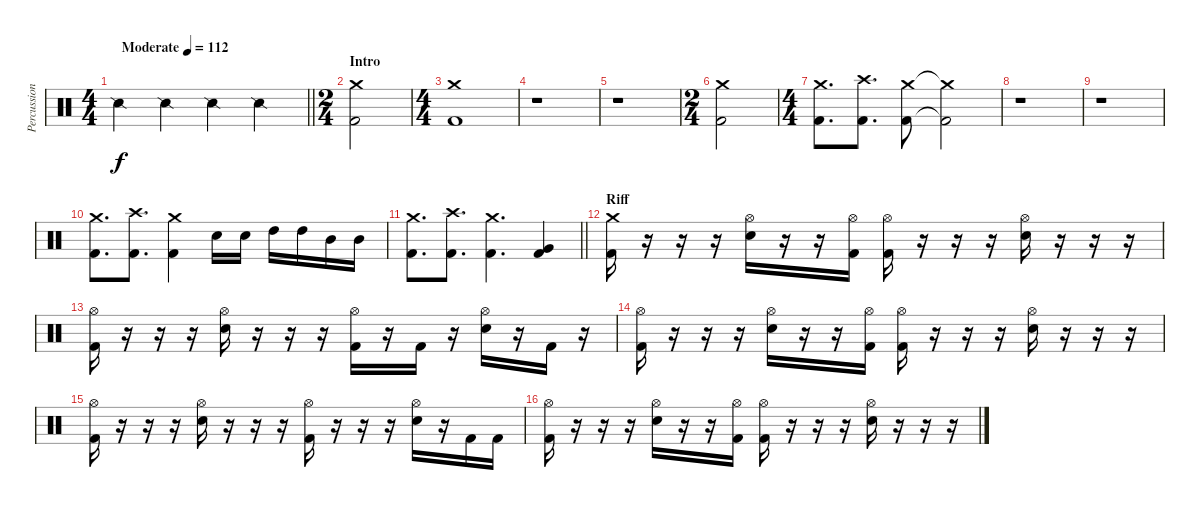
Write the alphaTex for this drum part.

\track ("Percussioni" "Percussion") {instrument percussion}
\staff {score}
\articulation defaults
\ts (4 4)
\tempo (112 "Moderate")
\clef neutral
\barLineRight lightlight
\ks c "Snare (side stick) 2".4{dy f} "Snare (side stick) 2".4 "Snare (side stick) 2".4 "Snare (side stick) 2".4
|
\ts (2 4)
\section ("" "Intro")
("Kick (hit) 2" "Crash medium (hit)").2 |
\ts (4 4)
("Kick (hit) 2" "Crash medium (hit)").1 |
r.1 |
r.1 |
\ts (2 4)
("Kick (hit) 2" "Crash medium (hit)").2 |
\ts (4 4)
("Kick (hit) 2" "Crash medium (hit)").8{d} ("Kick (hit) 2" "Crash high (hit)").8{d} ("Kick (hit) 2" "Crash medium (hit)").8 ("Kick (hit) 2"{t} "Crash medium (hit)"{t}).2 |
r.1 |
r.1 |
("Kick (hit) 2" "Crash medium (hit)").8{d} ("Kick (hit) 2" "Crash high (hit)").8{d} ("Kick (hit) 2" "Crash medium (hit)").4 "Snare (hit) 2".16 "Snare (hit) 2".16 "High Tom (hit)".16 "High Tom (hit)".16 "Mid Tom (hit)".16 "Mid Tom (hit)".16 |
\barLineRight lightlight
("Kick (hit) 2" "Crash medium (hit)").8{d} ("Kick (hit) 2" "Crash high (hit)").8{d} ("Kick (hit) 2" "Crash medium (hit)").4{d} ("Kick (hit) 2" "Very Low Tom (hit)").4 |
\section ("" "Riff")
("Kick (hit) 2" "Crash medium (hit)").16 r.16 r.16 r.16 ("Snare (hit) 2" "Hi-Hat (open)").16 r.16 r.16 ("Kick (hit) 2" "Hi-Hat (open)").16 ("Kick (hit) 2" "Hi-Hat (open)").16 r.16 r.16 r.16 ("Snare (hit) 2" "Hi-Hat (open)").16 r.16 r.16 r.16 |
("Kick (hit) 2" "Hi-Hat (open)").16 r.16 r.16 r.16 ("Snare (hit) 2" "Hi-Hat (open)").16 r.16 r.16 r.16 ("Kick (hit) 2" "Hi-Hat (open)").16 r.16 "Kick (hit) 2".16 r.16 ("Snare (hit) 2" "Hi-Hat (open)").16 r.16 "Kick (hit) 2".16 r.16 |
("Kick (hit) 2" "Hi-Hat (open)").16 r.16 r.16 r.16 ("Snare (hit) 2" "Hi-Hat (open)").16 r.16 r.16 ("Kick (hit) 2" "Hi-Hat (open)").16 ("Kick (hit) 2" "Hi-Hat (open)").16 r.16 r.16 r.16 ("Snare (hit) 2" "Hi-Hat (open)").16 r.16 r.16 r.16 |
("Kick (hit) 2" "Hi-Hat (open)").16 r.16 r.16 r.16 ("Snare (hit) 2" "Hi-Hat (open)").16 r.16 r.16 r.16 ("Kick (hit) 2" "Hi-Hat (open)").16 r.16 r.16 r.16 ("Snare (hit) 2" "Hi-Hat (open)").16 r.16 "Kick (hit) 2".16 "Kick (hit) 2".16 |
("Kick (hit) 2" "Hi-Hat (open)").16 r.16 r.16 r.16 ("Snare (hit) 2" "Hi-Hat (open)").16 r.16 r.16 ("Kick (hit) 2" "Hi-Hat (open)").16 ("Kick (hit) 2" "Hi-Hat (open)").16 r.16 r.16 r.16 ("Snare (hit) 2" "Hi-Hat (open)").16 r.16 r.16 r.16
